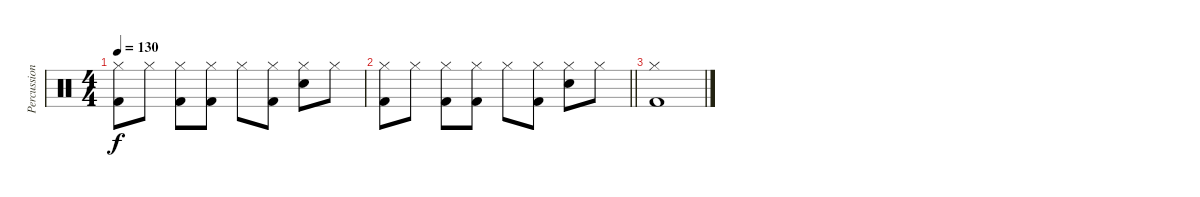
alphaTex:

\track ("Percussion" "Percussion") {instrument percussion}
\staff {score}
\articulation defaults
\ts (4 4)
\tempo 130
\clef neutral
\ks c
("Kick (hit) 2" "Hi-Hat (closed)").8{dy f} "Hi-Hat (closed)".8 ("Kick (hit) 2" "Hi-Hat (closed)").8 ("Kick (hit) 2" "Hi-Hat (closed)").8 "Hi-Hat (closed)".8 ("Kick (hit) 2" "Hi-Hat (closed)").8 ("Snare (hit) 2" "Hi-Hat (closed)").8 "Hi-Hat (closed)".8 |
\barLineRight lightlight
("Kick (hit) 2" "Hi-Hat (closed)").8 "Hi-Hat (closed)".8 ("Kick (hit) 2" "Hi-Hat (closed)").8 ("Kick (hit) 2" "Hi-Hat (closed)").8 "Hi-Hat (closed)".8 ("Kick (hit) 2" "Hi-Hat (closed)").8 ("Snare (hit) 2" "Hi-Hat (closed)").8 "Hi-Hat (closed)".8 |
("Kick (hit) 2" "Hi-Hat (closed)").1
